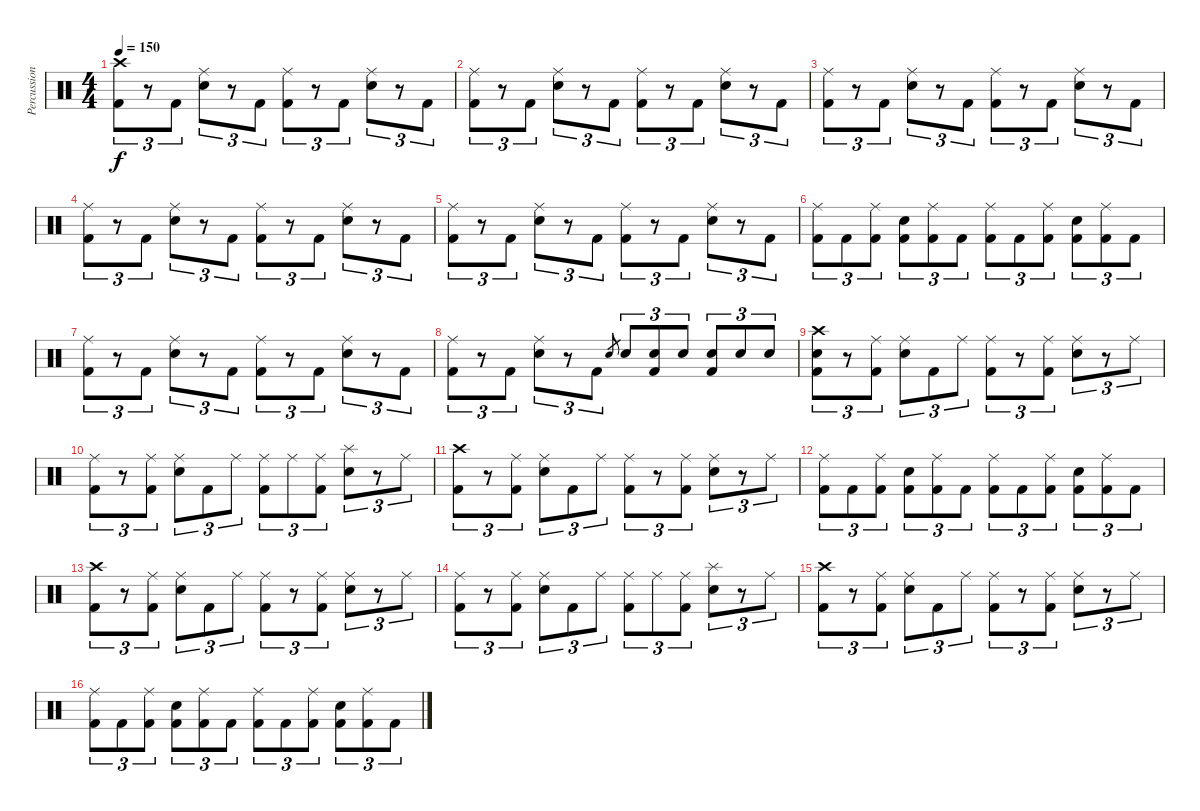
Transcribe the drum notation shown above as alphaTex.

\track ("Percussion" "Percussion") {instrument percussion}
\staff {score}
\articulation defaults
\ts (4 4)
\tempo 150
\clef neutral
\ks c
("Crash high (hit)" "Kick (hit) 2").8{tu (3 2) dy f} r.8{tu (3 2)} "Kick (hit) 2".8{tu (3 2)} ("Ride (middle)" "Snare (hit) 2").8{tu (3 2)} r.8{tu (3 2)} "Kick (hit) 2".8{tu (3 2)} ("Ride (middle)" "Kick (hit) 2").8{tu (3 2)} r.8{tu (3 2)} "Kick (hit) 2".8{tu (3 2)} ("Ride (middle)" "Snare (hit) 2").8{tu (3 2)} r.8{tu (3 2)} "Kick (hit) 2".8{tu (3 2)} |
("Ride (middle)" "Kick (hit) 2").8{tu (3 2)} r.8{tu (3 2)} "Kick (hit) 2".8{tu (3 2)} ("Ride (middle)" "Snare (hit) 2").8{tu (3 2)} r.8{tu (3 2)} "Kick (hit) 2".8{tu (3 2)} ("Ride (middle)" "Kick (hit) 2").8{tu (3 2)} r.8{tu (3 2)} "Kick (hit) 2".8{tu (3 2)} ("Ride (middle)" "Snare (hit) 2").8{tu (3 2)} r.8{tu (3 2)} "Kick (hit) 2".8{tu (3 2)} |
("Ride (middle)" "Kick (hit) 2").8{tu (3 2)} r.8{tu (3 2)} "Kick (hit) 2".8{tu (3 2)} ("Ride (middle)" "Snare (hit) 2").8{tu (3 2)} r.8{tu (3 2)} "Kick (hit) 2".8{tu (3 2)} ("Ride (middle)" "Kick (hit) 2").8{tu (3 2)} r.8{tu (3 2)} "Kick (hit) 2".8{tu (3 2)} ("Ride (middle)" "Snare (hit) 2").8{tu (3 2)} r.8{tu (3 2)} "Kick (hit) 2".8{tu (3 2)} |
("Ride (middle)" "Kick (hit) 2").8{tu (3 2)} r.8{tu (3 2)} "Kick (hit) 2".8{tu (3 2)} ("Ride (middle)" "Snare (hit) 2").8{tu (3 2)} r.8{tu (3 2)} "Kick (hit) 2".8{tu (3 2)} ("Ride (middle)" "Kick (hit) 2").8{tu (3 2)} r.8{tu (3 2)} "Kick (hit) 2".8{tu (3 2)} ("Ride (middle)" "Snare (hit) 2").8{tu (3 2)} r.8{tu (3 2)} "Kick (hit) 2".8{tu (3 2)} |
("Ride (middle)" "Kick (hit) 2").8{tu (3 2)} r.8{tu (3 2)} "Kick (hit) 2".8{tu (3 2)} ("Ride (middle)" "Snare (hit) 2").8{tu (3 2)} r.8{tu (3 2)} "Kick (hit) 2".8{tu (3 2)} ("Ride (middle)" "Kick (hit) 2").8{tu (3 2)} r.8{tu (3 2)} "Kick (hit) 2".8{tu (3 2)} ("Ride (middle)" "Snare (hit) 2").8{tu (3 2)} r.8{tu (3 2)} "Kick (hit) 2".8{tu (3 2)} |
("Ride (middle)" "Kick (hit) 2").8{tu (3 2)} "Kick (hit) 2".8{tu (3 2)} ("Ride (middle)" "Kick (hit) 2").8{tu (3 2)} ("Snare (hit) 2" "Kick (hit) 2").8{tu (3 2)} ("Ride (middle)" "Kick (hit) 2").8{tu (3 2)} "Kick (hit) 2".8{tu (3 2)} ("Ride (middle)" "Kick (hit) 2").8{tu (3 2)} "Kick (hit) 2".8{tu (3 2)} ("Ride (middle)" "Kick (hit) 2").8{tu (3 2)} ("Snare (hit) 2" "Kick (hit) 2").8{tu (3 2)} ("Ride (middle)" "Kick (hit) 2").8{tu (3 2)} "Kick (hit) 2".8{tu (3 2)} |
("Ride (middle)" "Kick (hit) 2").8{tu (3 2)} r.8{tu (3 2)} "Kick (hit) 2".8{tu (3 2)} ("Ride (middle)" "Snare (hit) 2").8{tu (3 2)} r.8{tu (3 2)} "Kick (hit) 2".8{tu (3 2)} ("Ride (middle)" "Kick (hit) 2").8{tu (3 2)} r.8{tu (3 2)} "Kick (hit) 2".8{tu (3 2)} ("Ride (middle)" "Snare (hit) 2").8{tu (3 2)} r.8{tu (3 2)} "Kick (hit) 2".8{tu (3 2)} |
("Ride (middle)" "Kick (hit) 2").8{tu (3 2)} r.8{tu (3 2)} "Kick (hit) 2".8{tu (3 2)} ("Ride (middle)" "Snare (hit) 2").8{tu (3 2)} r.8{tu (3 2)} "Kick (hit) 2".8{tu (3 2)} "Snare (hit) 2".8{gr} "Snare (hit) 2".8{tu (3 2)} ("Snare (hit) 2" "Kick (hit) 2").8{tu (3 2)} "Snare (hit) 2".8{tu (3 2)} ("Snare (hit) 2" "Kick (hit) 2").8{tu (3 2)} "Snare (hit) 2".8{tu (3 2)} "Snare (hit) 2".8{tu (3 2)} |
("Crash high (hit)" "Snare (hit) 2" "Kick (hit) 2").8{tu (3 2)} r.8{tu (3 2)} ("Ride (middle)" "Kick (hit) 2").8{tu (3 2)} ("Ride (middle)" "Snare (hit) 2").8{tu (3 2)} "Kick (hit) 2".8{tu (3 2)} "Ride (middle)".8{tu (3 2)} ("Ride (middle)" "Kick (hit) 2").8{tu (3 2)} r.8{tu (3 2)} ("Ride (middle)" "Kick (hit) 2").8{tu (3 2)} ("Ride (middle)" "Snare (hit) 2").8{tu (3 2)} r.8{tu (3 2)} "Ride (middle)".8{tu (3 2)} |
("Ride (middle)" "Kick (hit) 2").8{tu (3 2)} r.8{tu (3 2)} ("Ride (middle)" "Kick (hit) 2").8{tu (3 2)} ("Ride (middle)" "Snare (hit) 2").8{tu (3 2)} "Kick (hit) 2".8{tu (3 2)} "Ride (middle)".8{tu (3 2)} ("Ride (middle)" "Kick (hit) 2").8{tu (3 2)} "Ride (middle)".8{tu (3 2)} ("Ride (middle)" "Kick (hit) 2").8{tu (3 2)} ("Splash (hit)" "Snare (hit) 2").8{tu (3 2)} r.8{tu (3 2)} "Ride (middle)".8{tu (3 2)} |
("Crash high (hit)" "Kick (hit) 2").8{tu (3 2)} r.8{tu (3 2)} ("Ride (middle)" "Kick (hit) 2").8{tu (3 2)} ("Ride (middle)" "Snare (hit) 2").8{tu (3 2)} "Kick (hit) 2".8{tu (3 2)} "Ride (middle)".8{tu (3 2)} ("Ride (middle)" "Kick (hit) 2").8{tu (3 2)} r.8{tu (3 2)} ("Ride (middle)" "Kick (hit) 2").8{tu (3 2)} ("Ride (middle)" "Snare (hit) 2").8{tu (3 2)} r.8{tu (3 2)} "Ride (middle)".8{tu (3 2)} |
("Ride (middle)" "Kick (hit) 2").8{tu (3 2)} "Kick (hit) 2".8{tu (3 2)} ("Ride (middle)" "Kick (hit) 2").8{tu (3 2)} ("Snare (hit) 2" "Kick (hit) 2").8{tu (3 2)} ("Ride (middle)" "Kick (hit) 2").8{tu (3 2)} "Kick (hit) 2".8{tu (3 2)} ("Ride (middle)" "Kick (hit) 2").8{tu (3 2)} "Kick (hit) 2".8{tu (3 2)} ("Ride (middle)" "Kick (hit) 2").8{tu (3 2)} ("Snare (hit) 2" "Kick (hit) 2").8{tu (3 2)} ("Ride (middle)" "Kick (hit) 2").8{tu (3 2)} "Kick (hit) 2".8{tu (3 2)} |
("Crash high (hit)" "Kick (hit) 2").8{tu (3 2)} r.8{tu (3 2)} ("Ride (middle)" "Kick (hit) 2").8{tu (3 2)} ("Ride (middle)" "Snare (hit) 2").8{tu (3 2)} "Kick (hit) 2".8{tu (3 2)} "Ride (middle)".8{tu (3 2)} ("Ride (middle)" "Kick (hit) 2").8{tu (3 2)} r.8{tu (3 2)} ("Ride (middle)" "Kick (hit) 2").8{tu (3 2)} ("Ride (middle)" "Snare (hit) 2").8{tu (3 2)} r.8{tu (3 2)} "Ride (middle)".8{tu (3 2)} |
("Ride (middle)" "Kick (hit) 2").8{tu (3 2)} r.8{tu (3 2)} ("Ride (middle)" "Kick (hit) 2").8{tu (3 2)} ("Ride (middle)" "Snare (hit) 2").8{tu (3 2)} "Kick (hit) 2".8{tu (3 2)} "Ride (middle)".8{tu (3 2)} ("Ride (middle)" "Kick (hit) 2").8{tu (3 2)} "Ride (middle)".8{tu (3 2)} ("Ride (middle)" "Kick (hit) 2").8{tu (3 2)} ("Splash (hit)" "Snare (hit) 2").8{tu (3 2)} r.8{tu (3 2)} "Ride (middle)".8{tu (3 2)} |
("Crash high (hit)" "Kick (hit) 2").8{tu (3 2)} r.8{tu (3 2)} ("Ride (middle)" "Kick (hit) 2").8{tu (3 2)} ("Ride (middle)" "Snare (hit) 2").8{tu (3 2)} "Kick (hit) 2".8{tu (3 2)} "Ride (middle)".8{tu (3 2)} ("Ride (middle)" "Kick (hit) 2").8{tu (3 2)} r.8{tu (3 2)} ("Ride (middle)" "Kick (hit) 2").8{tu (3 2)} ("Ride (middle)" "Snare (hit) 2").8{tu (3 2)} r.8{tu (3 2)} "Ride (middle)".8{tu (3 2)} |
("Ride (middle)" "Kick (hit) 2").8{tu (3 2)} "Kick (hit) 2".8{tu (3 2)} ("Ride (middle)" "Kick (hit) 2").8{tu (3 2)} ("Snare (hit) 2" "Kick (hit) 2").8{tu (3 2)} ("Ride (middle)" "Kick (hit) 2").8{tu (3 2)} "Kick (hit) 2".8{tu (3 2)} ("Ride (middle)" "Kick (hit) 2").8{tu (3 2)} "Kick (hit) 2".8{tu (3 2)} ("Ride (middle)" "Kick (hit) 2").8{tu (3 2)} ("Snare (hit) 2" "Kick (hit) 2").8{tu (3 2)} ("Ride (middle)" "Kick (hit) 2").8{tu (3 2)} "Kick (hit) 2".8{tu (3 2)}
